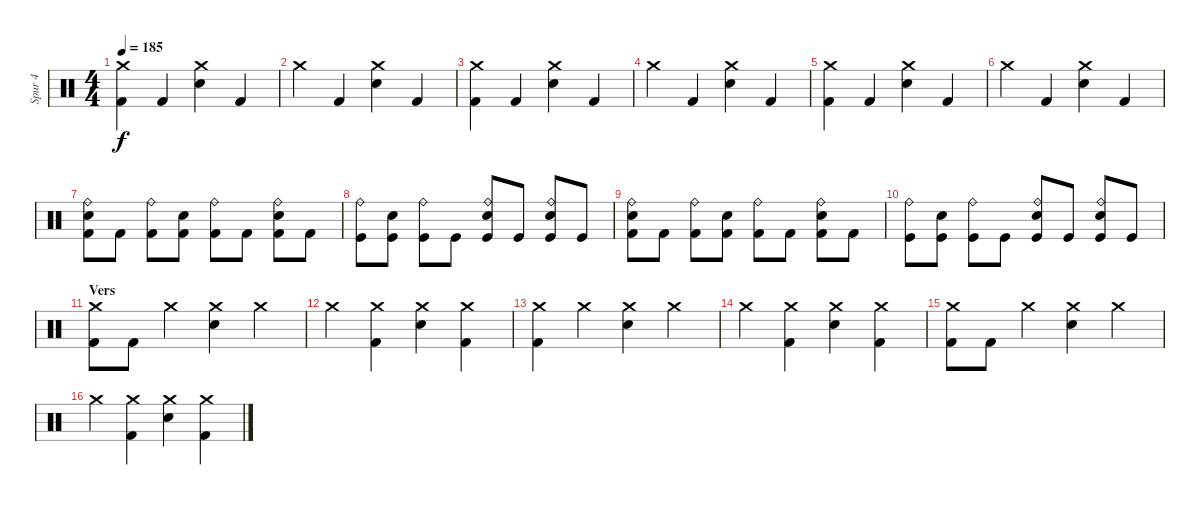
\track ("Spur 4" "Spur 4") {instrument percussion}
\staff {score}
\articulation defaults
\ts (4 4)
\tempo 185
\clef neutral
\ks c
("Crash medium (hit)" "Kick (hit) 2").4{dy f} "Kick (hit) 2".4 ("Crash medium (hit)" "Electric Snare (hit)").4 "Kick (hit) 2".4 |
"Crash medium (hit)".4 "Kick (hit) 2".4 ("Crash medium (hit)" "Electric Snare (hit)").4 "Kick (hit) 2".4 |
("Crash medium (hit)" "Kick (hit) 2").4 "Kick (hit) 2".4 ("Crash medium (hit)" "Electric Snare (hit)").4 "Kick (hit) 2".4 |
"Crash medium (hit)".4 "Kick (hit) 2".4 ("Crash medium (hit)" "Electric Snare (hit)").4 "Kick (hit) 2".4 |
("Crash medium (hit)" "Kick (hit) 2").4 "Kick (hit) 2".4 ("Crash medium (hit)" "Electric Snare (hit)").4 "Kick (hit) 2".4 |
"Crash medium (hit)".4 "Kick (hit) 2".4 ("Crash medium (hit)" "Electric Snare (hit)").4 "Kick (hit) 2".4 |
("Ride (bell)" "Electric Snare (hit)" "Kick (hit) 2").8 "Kick (hit) 2".8 ("Ride (bell)" "Kick (hit) 2").8 ("Electric Snare (hit)" "Kick (hit) 2").8 ("Ride (bell)" "Kick (hit) 2").8 "Kick (hit) 2".8 ("Ride (bell)" "Electric Snare (hit)" "Kick (hit) 2").8 "Kick (hit) 2".8 |
("Ride (bell)" "Kick (hit)").8 ("Electric Snare (hit)" "Kick (hit)").8 ("Ride (bell)" "Kick (hit)").8 "Kick (hit)".8 ("Ride (bell)" "Electric Snare (hit)" "Kick (hit)").8 "Kick (hit)".8 ("Ride (bell)" "Electric Snare (hit)" "Kick (hit)").8 "Kick (hit)".8 |
("Ride (bell)" "Electric Snare (hit)" "Kick (hit) 2").8 "Kick (hit) 2".8 ("Ride (bell)" "Kick (hit) 2").8 ("Electric Snare (hit)" "Kick (hit) 2").8 ("Ride (bell)" "Kick (hit) 2").8 "Kick (hit) 2".8 ("Ride (bell)" "Electric Snare (hit)" "Kick (hit) 2").8 "Kick (hit) 2".8 |
("Ride (bell)" "Kick (hit)").8 ("Electric Snare (hit)" "Kick (hit)").8 ("Ride (bell)" "Kick (hit)").8 "Kick (hit)".8 ("Ride (bell)" "Electric Snare (hit)" "Kick (hit)").8 "Kick (hit)".8 ("Ride (bell)" "Electric Snare (hit)" "Kick (hit)").8 "Kick (hit)".8 |
\section ("" "Vers")
("Crash medium (hit)" "Kick (hit) 2").8 "Kick (hit) 2".8 "Crash medium (hit)".4 ("Crash medium (hit)" "Electric Snare (hit)").4 "Crash medium (hit)".4 |
"Crash medium (hit)".4 ("Crash medium (hit)" "Kick (hit) 2").4 ("Crash medium (hit)" "Electric Snare (hit)").4 ("Crash medium (hit)" "Kick (hit) 2").4 |
("Crash medium (hit)" "Kick (hit) 2").4 "Crash medium (hit)".4 ("Crash medium (hit)" "Electric Snare (hit)").4 "Crash medium (hit)".4 |
"Crash medium (hit)".4 ("Crash medium (hit)" "Kick (hit) 2").4 ("Crash medium (hit)" "Electric Snare (hit)").4 ("Crash medium (hit)" "Kick (hit) 2").4 |
("Crash medium (hit)" "Kick (hit) 2").8 "Kick (hit) 2".8 "Crash medium (hit)".4 ("Crash medium (hit)" "Electric Snare (hit)").4 "Crash medium (hit)".4 |
"Crash medium (hit)".4 ("Crash medium (hit)" "Kick (hit) 2").4 ("Crash medium (hit)" "Electric Snare (hit)").4 ("Crash medium (hit)" "Kick (hit) 2").4
